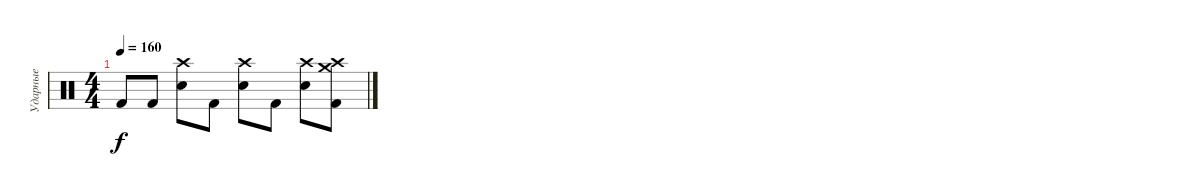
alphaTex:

\track ("Ударные" "Ударные") {instrument percussion}
\staff {score}
\articulation defaults
\ts (4 4)
\tempo 160
\clef neutral
\ks c "Kick (hit) 2".8{dy f} "Kick (hit) 2".8
("Crash high (hit)" "Electric Snare (hit)").8 "Kick (hit) 2".8 ("Crash high (hit)" "Electric Snare (hit)").8 "Kick (hit) 2".8 ("Crash high (hit)" "Electric Snare (hit)").8 ("Crash medium (hit)" "Crash high (hit)" "Kick (hit) 2").8
